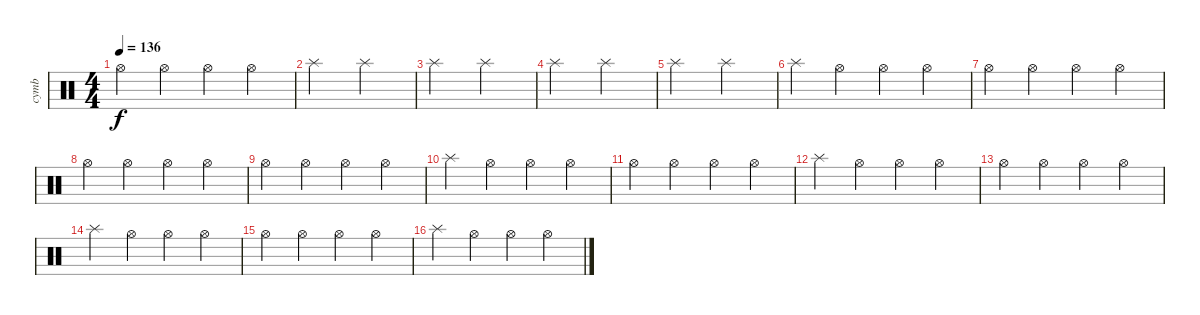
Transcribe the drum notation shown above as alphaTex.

\track ("cymb" "cymb") {instrument percussion}
\staff {score}
\articulation defaults
\ts (4 4)
\tempo 136
\clef neutral
\ks c "Hi-Hat (open)".4{dy f} "Hi-Hat (open)".4 "Hi-Hat (open)".4 "Hi-Hat (open)".4
|
"Splash (hit)".2 "Splash (hit)".2 |
"Splash (hit)".2 "Splash (hit)".2 |
"Splash (hit)".2 "Splash (hit)".2 |
"Splash (hit)".2 "Splash (hit)".2 |
"Splash (hit)".4 "Hi-Hat (open)".4 "Hi-Hat (open)".4 "Hi-Hat (open)".4 |
"Hi-Hat (open)".4 "Hi-Hat (open)".4 "Hi-Hat (open)".4 "Hi-Hat (open)".4 |
"Hi-Hat (open)".4 "Hi-Hat (open)".4 "Hi-Hat (open)".4 "Hi-Hat (open)".4 |
"Hi-Hat (open)".4 "Hi-Hat (open)".4 "Hi-Hat (open)".4 "Hi-Hat (open)".4 |
"Splash (hit)".4 "Hi-Hat (open)".4 "Hi-Hat (open)".4 "Hi-Hat (open)".4 |
"Hi-Hat (open)".4 "Hi-Hat (open)".4 "Hi-Hat (open)".4 "Hi-Hat (open)".4 |
"Splash (hit)".4 "Hi-Hat (open)".4 "Hi-Hat (open)".4 "Hi-Hat (open)".4 |
"Hi-Hat (open)".4 "Hi-Hat (open)".4 "Hi-Hat (open)".4 "Hi-Hat (open)".4 |
"Splash (hit)".4 "Hi-Hat (open)".4 "Hi-Hat (open)".4 "Hi-Hat (open)".4 |
"Hi-Hat (open)".4 "Hi-Hat (open)".4 "Hi-Hat (open)".4 "Hi-Hat (open)".4 |
"Splash (hit)".4 "Hi-Hat (open)".4 "Hi-Hat (open)".4 "Hi-Hat (open)".4
